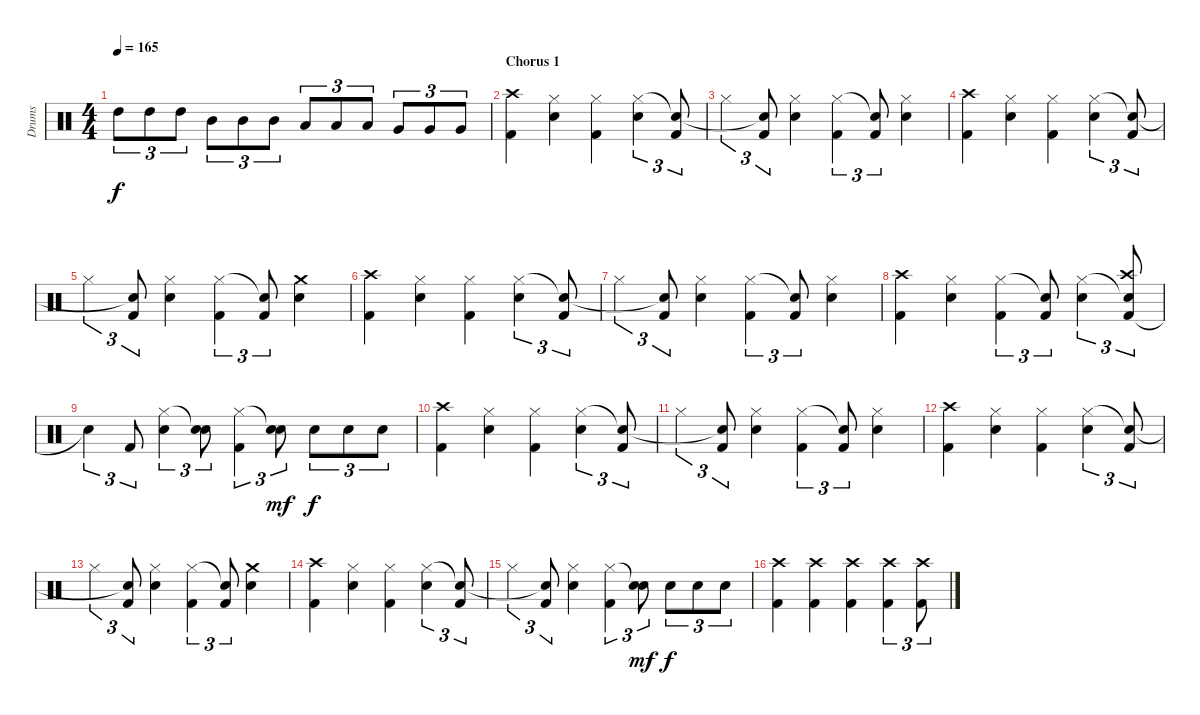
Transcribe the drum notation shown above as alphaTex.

\track ("Drums" "Drums") {instrument percussion}
\staff {score}
\articulation defaults
\ts (4 4)
\tempo 165
\clef neutral
\ks c "High Tom (hit)".8{tu (3 2) dy f} "High Tom (hit)".8{tu (3 2)} "High Tom (hit)".8{tu (3 2)} "Mid Tom (hit)".8{tu (3 2)} "Mid Tom (hit)".8{tu (3 2)} "Mid Tom (hit)".8{tu (3 2)} "Low Tom (hit)".8{tu (3 2)} "Low Tom (hit)".8{tu (3 2)} "Low Tom (hit)".8{tu (3 2)} "Very Low Tom (hit)".8{tu (3 2)} "Very Low Tom (hit)".8{tu (3 2)} "Very Low Tom (hit)".8{tu (3 2)}
|
\section ("" "Chorus 1")
("Kick (hit) 2" "Crash high (hit)").4 ("Snare (hit) 2" "Hi-Hat (closed)").4 ("Kick (hit) 2" "Hi-Hat (closed)").4 ("Snare (hit) 2" "Hi-Hat (closed)").4{tu (3 2)} ("Kick (hit) 2" "Snare (hit)"{t}).8{tu (3 2)} |
"Hi-Hat (closed)".4{tu (3 2)} ("Kick (hit) 2" "Snare (hit)"{t}).8{tu (3 2)} ("Snare (hit) 2" "Hi-Hat (closed)").4 ("Kick (hit) 2" "Hi-Hat (closed)").4{tu (3 2)} ("Kick (hit) 2" "Snare (hit)"{t}).8{tu (3 2)} ("Snare (hit) 2" "Hi-Hat (closed)").4 |
("Kick (hit) 2" "Crash high (hit)").4 ("Snare (hit) 2" "Hi-Hat (closed)").4 ("Kick (hit) 2" "Hi-Hat (closed)").4 ("Snare (hit) 2" "Hi-Hat (closed)").4{tu (3 2)} ("Kick (hit) 2" "Snare (hit)"{t}).8{tu (3 2)} |
"Hi-Hat (closed)".4{tu (3 2)} ("Kick (hit) 2" "Snare (hit)"{t}).8{tu (3 2)} ("Snare (hit) 2" "Hi-Hat (closed)").4 ("Kick (hit) 2" "Hi-Hat (closed)").4{tu (3 2)} ("Kick (hit) 2" "Snare (hit)"{t}).8{tu (3 2)} ("Snare (hit) 2" "Crash medium (hit)").4 |
("Kick (hit) 2" "Crash high (hit)").4 ("Snare (hit) 2" "Hi-Hat (closed)").4 ("Kick (hit) 2" "Hi-Hat (closed)").4 ("Snare (hit) 2" "Hi-Hat (closed)").4{tu (3 2)} ("Kick (hit) 2" "Snare (hit)"{t}).8{tu (3 2)} |
"Hi-Hat (closed)".4{tu (3 2)} ("Kick (hit) 2" "Snare (hit)"{t}).8{tu (3 2)} ("Snare (hit) 2" "Hi-Hat (closed)").4 ("Kick (hit) 2" "Hi-Hat (closed)").4{tu (3 2)} ("Kick (hit) 2" "Snare (hit)"{t}).8{tu (3 2)} ("Snare (hit) 2" "Hi-Hat (closed)").4 |
("Kick (hit) 2" "Crash high (hit)").4 ("Snare (hit) 2" "Hi-Hat (closed)").4 ("Kick (hit) 2" "Hi-Hat (closed)").4{tu (3 2)} ("Kick (hit) 2" "Snare (hit)"{t}).8{tu (3 2)} ("Snare (hit) 2" "Hi-Hat (closed)").4{tu (3 2)} ("Kick (hit) 2" "Snare (hit)"{t} "Crash high (hit)").8{tu (3 2)} |
"Snare (hit)"{t}.4{tu (3 2)} "Kick (hit) 2".8{tu (3 2)} ("Snare (hit) 2" "Hi-Hat (closed)").4{tu (3 2)} ("Snare (hit) 2" "Snare (hit)"{t}).8{tu (3 2)} ("Kick (hit) 2" "Hi-Hat (closed)").4{tu (3 2)} ("Snare (hit) 2" "Snare (hit)"{t}).8{tu (3 2) dy mf} "Snare (hit) 2".8{tu (3 2) dy f} "Snare (hit) 2".8{tu (3 2)} "Snare (hit) 2".8{tu (3 2)} |
("Kick (hit) 2" "Crash high (hit)").4 ("Snare (hit) 2" "Hi-Hat (closed)").4 ("Kick (hit) 2" "Hi-Hat (closed)").4 ("Snare (hit) 2" "Hi-Hat (closed)").4{tu (3 2)} ("Kick (hit) 2" "Snare (hit)"{t}).8{tu (3 2)} |
"Hi-Hat (closed)".4{tu (3 2)} ("Kick (hit) 2" "Snare (hit)"{t}).8{tu (3 2)} ("Snare (hit) 2" "Hi-Hat (closed)").4 ("Kick (hit) 2" "Hi-Hat (closed)").4{tu (3 2)} ("Kick (hit) 2" "Snare (hit)"{t}).8{tu (3 2)} ("Snare (hit) 2" "Hi-Hat (closed)").4 |
("Kick (hit) 2" "Crash high (hit)").4 ("Snare (hit) 2" "Hi-Hat (closed)").4 ("Kick (hit) 2" "Hi-Hat (closed)").4 ("Snare (hit) 2" "Hi-Hat (closed)").4{tu (3 2)} ("Kick (hit) 2" "Snare (hit)"{t}).8{tu (3 2)} |
"Hi-Hat (closed)".4{tu (3 2)} ("Kick (hit) 2" "Snare (hit)"{t}).8{tu (3 2)} ("Snare (hit) 2" "Hi-Hat (closed)").4 ("Kick (hit) 2" "Hi-Hat (closed)").4{tu (3 2)} ("Kick (hit) 2" "Snare (hit)"{t}).8{tu (3 2)} ("Snare (hit) 2" "Crash medium (hit)").4 |
("Kick (hit) 2" "Crash high (hit)").4 ("Snare (hit) 2" "Hi-Hat (closed)").4 ("Kick (hit) 2" "Hi-Hat (closed)").4 ("Snare (hit) 2" "Hi-Hat (closed)").4{tu (3 2)} ("Kick (hit) 2" "Snare (hit)"{t}).8{tu (3 2)} |
"Hi-Hat (closed)".4{tu (3 2)} ("Kick (hit) 2" "Snare (hit)"{t}).8{tu (3 2)} ("Snare (hit) 2" "Hi-Hat (closed)").4 ("Kick (hit) 2" "Hi-Hat (closed)").4{tu (3 2)} ("Snare (hit) 2" "Snare (hit)"{t}).8{tu (3 2) dy mf} "Snare (hit) 2".8{tu (3 2) dy f} "Snare (hit) 2".8{tu (3 2)} "Snare (hit) 2".8{tu (3 2)} |
("Kick (hit) 2" "Crash high (hit)").4 ("Kick (hit) 2" "Crash high (hit)").4 ("Kick (hit) 2" "Crash high (hit)").4 ("Kick (hit) 2" "Crash high (hit)").4{tu (3 2)} ("Kick (hit) 2" "Crash high (hit)").8{tu (3 2)}
